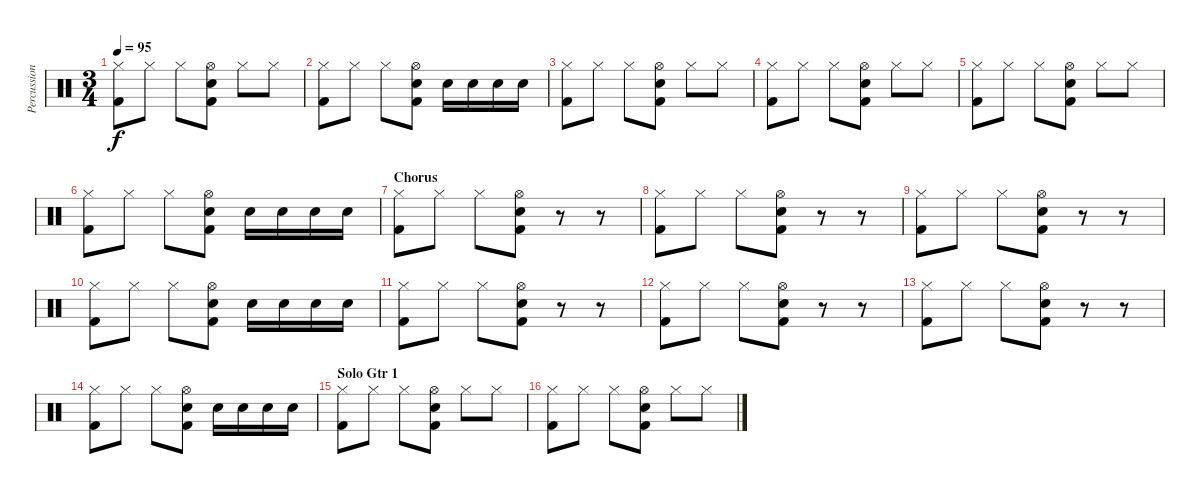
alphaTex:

\track ("Percussion" "Percussion") {instrument percussion}
\staff {score}
\articulation defaults
\ts (3 4)
\tempo 95
\clef neutral
\ks c
("Hi-Hat (closed)" "Kick (hit) 2").8{dy f} "Hi-Hat (closed)".8 "Hi-Hat (closed)".8 ("Hi-Hat (open)" "Snare (hit) 2" "Kick (hit) 2").8 "Hi-Hat (closed)".8 "Hi-Hat (closed)".8 |
("Hi-Hat (closed)" "Kick (hit) 2").8 "Hi-Hat (closed)".8 "Hi-Hat (closed)".8 ("Hi-Hat (open)" "Snare (hit) 2" "Kick (hit) 2").8 "Snare (hit) 2".16 "Snare (hit) 2".16 "Snare (hit) 2".16 "Snare (hit) 2".16 |
("Hi-Hat (closed)" "Kick (hit) 2").8 "Hi-Hat (closed)".8 "Hi-Hat (closed)".8 ("Hi-Hat (open)" "Snare (hit) 2" "Kick (hit) 2").8 "Hi-Hat (closed)".8 "Hi-Hat (closed)".8 |
("Hi-Hat (closed)" "Kick (hit) 2").8 "Hi-Hat (closed)".8 "Hi-Hat (closed)".8 ("Hi-Hat (open)" "Snare (hit) 2" "Kick (hit) 2").8 "Hi-Hat (closed)".8 "Hi-Hat (closed)".8 |
("Hi-Hat (closed)" "Kick (hit) 2").8 "Hi-Hat (closed)".8 "Hi-Hat (closed)".8 ("Hi-Hat (open)" "Snare (hit) 2" "Kick (hit) 2").8 "Hi-Hat (closed)".8 "Hi-Hat (closed)".8 |
("Hi-Hat (closed)" "Kick (hit) 2").8 "Hi-Hat (closed)".8 "Hi-Hat (closed)".8 ("Hi-Hat (open)" "Snare (hit) 2" "Kick (hit) 2").8 "Snare (hit) 2".16 "Snare (hit) 2".16 "Snare (hit) 2".16 "Snare (hit) 2".16 |
\section ("" "Chorus")
("Hi-Hat (closed)" "Kick (hit) 2").8 "Hi-Hat (closed)".8 "Hi-Hat (closed)".8 ("Hi-Hat (open)" "Snare (hit) 2" "Kick (hit) 2").8 r.8 r.8 |
("Hi-Hat (closed)" "Kick (hit) 2").8 "Hi-Hat (closed)".8 "Hi-Hat (closed)".8 ("Hi-Hat (open)" "Snare (hit) 2" "Kick (hit) 2").8 r.8 r.8 |
("Hi-Hat (closed)" "Kick (hit) 2").8 "Hi-Hat (closed)".8 "Hi-Hat (closed)".8 ("Hi-Hat (open)" "Snare (hit) 2" "Kick (hit) 2").8 r.8 r.8 |
("Hi-Hat (closed)" "Kick (hit) 2").8 "Hi-Hat (closed)".8 "Hi-Hat (closed)".8 ("Hi-Hat (open)" "Snare (hit) 2" "Kick (hit) 2").8 "Snare (hit) 2".16 "Snare (hit) 2".16 "Snare (hit) 2".16 "Snare (hit) 2".16 |
("Hi-Hat (closed)" "Kick (hit) 2").8 "Hi-Hat (closed)".8 "Hi-Hat (closed)".8 ("Hi-Hat (open)" "Snare (hit) 2" "Kick (hit) 2").8 r.8 r.8 |
("Hi-Hat (closed)" "Kick (hit) 2").8 "Hi-Hat (closed)".8 "Hi-Hat (closed)".8 ("Hi-Hat (open)" "Snare (hit) 2" "Kick (hit) 2").8 r.8 r.8 |
("Hi-Hat (closed)" "Kick (hit) 2").8 "Hi-Hat (closed)".8 "Hi-Hat (closed)".8 ("Hi-Hat (open)" "Snare (hit) 2" "Kick (hit) 2").8 r.8 r.8 |
("Hi-Hat (closed)" "Kick (hit) 2").8 "Hi-Hat (closed)".8 "Hi-Hat (closed)".8 ("Hi-Hat (open)" "Snare (hit) 2" "Kick (hit) 2").8 "Snare (hit) 2".16 "Snare (hit) 2".16 "Snare (hit) 2".16 "Snare (hit) 2".16 |
\section ("" "Solo Gtr 1")
("Hi-Hat (closed)" "Kick (hit) 2").8{volume 10} "Hi-Hat (closed)".8 "Hi-Hat (closed)".8 ("Hi-Hat (open)" "Snare (hit) 2" "Kick (hit) 2").8 "Hi-Hat (closed)".8 "Hi-Hat (closed)".8 |
("Hi-Hat (closed)" "Kick (hit) 2").8 "Hi-Hat (closed)".8 "Hi-Hat (closed)".8 ("Hi-Hat (open)" "Snare (hit) 2" "Kick (hit) 2").8 "Hi-Hat (closed)".8 "Hi-Hat (closed)".8
